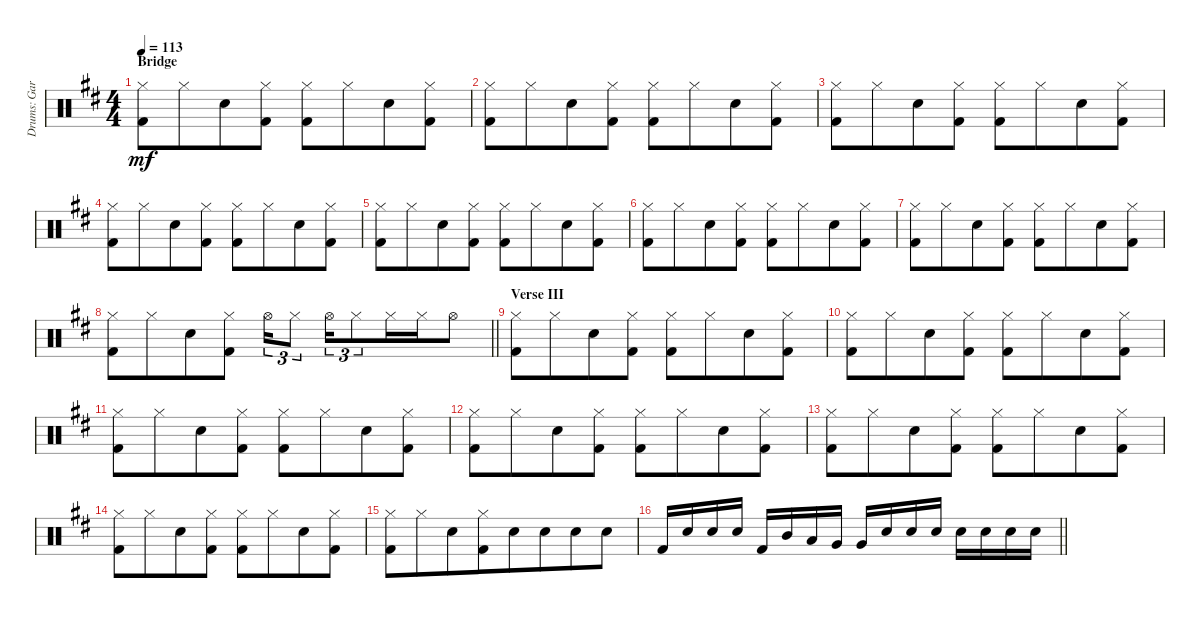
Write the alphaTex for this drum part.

\track ("Drums: Gary" "Drums: Gar") {instrument percussion}
\staff {score}
\articulation defaults
\ts (4 4)
\section ("" "Bridge")
\tempo 113
\clef neutral
\ks d
("Hi-Hat (closed)" "Kick (hit) 2").8{dy mf} "Hi-Hat (closed)".8{beam merge} "Snare (hit) 2".8 ("Hi-Hat (closed)" "Kick (hit) 2").8 ("Hi-Hat (closed)" "Kick (hit) 2").8 "Hi-Hat (closed)".8{beam merge} "Snare (hit) 2".8 ("Hi-Hat (closed)" "Kick (hit) 2").8 |
("Hi-Hat (closed)" "Kick (hit) 2").8 "Hi-Hat (closed)".8{beam merge} "Snare (hit) 2".8 ("Hi-Hat (closed)" "Kick (hit) 2").8 ("Hi-Hat (closed)" "Kick (hit) 2").8 "Hi-Hat (closed)".8{beam merge} "Snare (hit) 2".8 ("Hi-Hat (closed)" "Kick (hit) 2").8 |
("Hi-Hat (closed)" "Kick (hit) 2").8 "Hi-Hat (closed)".8{beam merge} "Snare (hit) 2".8 ("Hi-Hat (closed)" "Kick (hit) 2").8 ("Hi-Hat (closed)" "Kick (hit) 2").8 "Hi-Hat (closed)".8{beam merge} "Snare (hit) 2".8 ("Hi-Hat (closed)" "Kick (hit) 2").8 |
("Hi-Hat (closed)" "Kick (hit) 2").8 "Hi-Hat (closed)".8{beam merge} "Snare (hit) 2".8 ("Hi-Hat (closed)" "Kick (hit) 2").8 ("Hi-Hat (closed)" "Kick (hit) 2").8 "Hi-Hat (closed)".8{beam merge} "Snare (hit) 2".8 ("Hi-Hat (closed)" "Kick (hit) 2").8 |
("Hi-Hat (closed)" "Kick (hit) 2").8 "Hi-Hat (closed)".8{beam merge} "Snare (hit) 2".8 ("Hi-Hat (closed)" "Kick (hit) 2").8 ("Hi-Hat (closed)" "Kick (hit) 2").8 "Hi-Hat (closed)".8{beam merge} "Snare (hit) 2".8 ("Hi-Hat (closed)" "Kick (hit) 2").8 |
("Hi-Hat (closed)" "Kick (hit) 2").8 "Hi-Hat (closed)".8{beam merge} "Snare (hit) 2".8 ("Hi-Hat (closed)" "Kick (hit) 2").8 ("Hi-Hat (closed)" "Kick (hit) 2").8 "Hi-Hat (closed)".8{beam merge} "Snare (hit) 2".8 ("Hi-Hat (closed)" "Kick (hit) 2").8 |
("Hi-Hat (closed)" "Kick (hit) 2").8 "Hi-Hat (closed)".8{beam merge} "Snare (hit) 2".8 ("Hi-Hat (closed)" "Kick (hit) 2").8 ("Hi-Hat (closed)" "Kick (hit) 2").8 "Hi-Hat (closed)".8{beam merge} "Snare (hit) 2".8 ("Hi-Hat (closed)" "Kick (hit) 2").8 |
\barLineRight lightlight
("Hi-Hat (closed)" "Kick (hit) 2").8 "Hi-Hat (closed)".8{beam merge} "Snare (hit) 2".8 ("Hi-Hat (closed)" "Kick (hit) 2").8 "Hi-Hat (open)".16{tu (3 2) beam merge} "Hi-Hat (closed)".8{tu (3 2)} "Hi-Hat (open)".16{tu (3 2) beam merge} "Hi-Hat (closed)".8{tu (3 2) beam merge} "Hi-Hat (closed)".16{beam merge} "Hi-Hat (closed)".16{beam merge} "Hi-Hat (open)".8 |
\section ("" "Verse III")
("Hi-Hat (closed)" "Kick (hit) 2").8 "Hi-Hat (closed)".8{beam merge} "Snare (hit) 2".8 ("Hi-Hat (closed)" "Kick (hit) 2").8 ("Hi-Hat (closed)" "Kick (hit) 2").8 "Hi-Hat (closed)".8{beam merge} "Snare (hit) 2".8 ("Hi-Hat (closed)" "Kick (hit) 2").8 |
("Hi-Hat (closed)" "Kick (hit) 2").8 "Hi-Hat (closed)".8{beam merge} "Snare (hit) 2".8 ("Hi-Hat (closed)" "Kick (hit) 2").8 ("Hi-Hat (closed)" "Kick (hit) 2").8 "Hi-Hat (closed)".8{beam merge} "Snare (hit) 2".8 ("Hi-Hat (closed)" "Kick (hit) 2").8 |
("Hi-Hat (closed)" "Kick (hit) 2").8 "Hi-Hat (closed)".8{beam merge} "Snare (hit) 2".8 ("Hi-Hat (closed)" "Kick (hit) 2").8 ("Hi-Hat (closed)" "Kick (hit) 2").8 "Hi-Hat (closed)".8{beam merge} "Snare (hit) 2".8 ("Hi-Hat (closed)" "Kick (hit) 2").8 |
("Hi-Hat (closed)" "Kick (hit) 2").8 "Hi-Hat (closed)".8{beam merge} "Snare (hit) 2".8 ("Hi-Hat (closed)" "Kick (hit) 2").8 ("Hi-Hat (closed)" "Kick (hit) 2").8 "Hi-Hat (closed)".8{beam merge} "Snare (hit) 2".8 ("Hi-Hat (closed)" "Kick (hit) 2").8 |
("Hi-Hat (closed)" "Kick (hit) 2").8 "Hi-Hat (closed)".8{beam merge} "Snare (hit) 2".8 ("Hi-Hat (closed)" "Kick (hit) 2").8 ("Hi-Hat (closed)" "Kick (hit) 2").8 "Hi-Hat (closed)".8{beam merge} "Snare (hit) 2".8 ("Hi-Hat (closed)" "Kick (hit) 2").8 |
("Hi-Hat (closed)" "Kick (hit) 2").8 "Hi-Hat (closed)".8{beam merge} "Snare (hit) 2".8 ("Hi-Hat (closed)" "Kick (hit) 2").8 ("Hi-Hat (closed)" "Kick (hit) 2").8 "Hi-Hat (closed)".8{beam merge} "Snare (hit) 2".8 ("Hi-Hat (closed)" "Kick (hit) 2").8 |
("Hi-Hat (closed)" "Kick (hit) 2").8 "Hi-Hat (closed)".8{beam merge} "Snare (hit) 2".8 ("Hi-Hat (closed)" "Kick (hit) 2").8{beam merge} "Snare (hit) 2".8{beam merge} "Snare (hit) 2".8{beam merge} "Snare (hit) 2".8{beam merge} "Snare (hit) 2".8 |
\barLineRight lightlight "Kick (hit) 2".16 "Snare (hit) 2".16 "Snare (hit) 2".16 "Snare (hit) 2".16 "Kick (hit) 2".16 "Mid Tom (hit)".16 "Low Tom (hit)".16 "Very Low Tom (hit)".16 "Very Low Tom (hit)".16 "Snare (hit) 2".16 "Snare (hit) 2".16 "Snare (hit) 2".16 "Snare (hit) 2".16 "Snare (hit) 2".16 "Snare (hit) 2".16 "Snare (hit) 2".16
